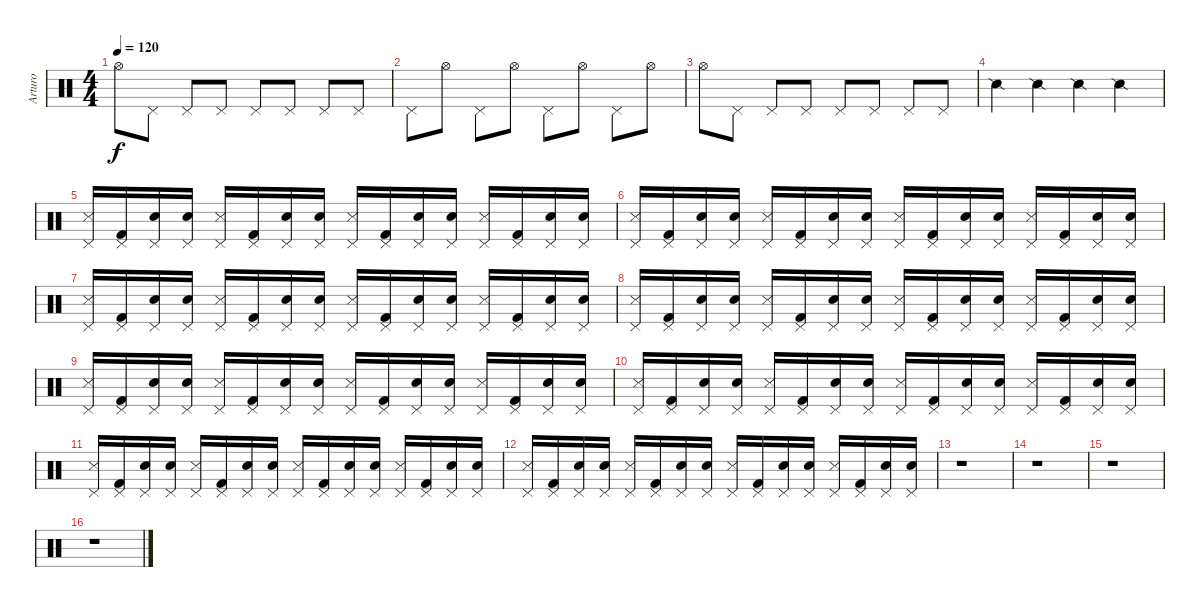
\track ("Arturo" "Arturo") {instrument percussion}
\staff {score}
\articulation defaults
\ts (4 4)
\tempo 120
\clef neutral
\ks c "Hi-Hat (open)".8{dy f} "Pedal Hi-Hat (hit)".8 "Pedal Hi-Hat (hit)".8 "Pedal Hi-Hat (hit)".8 "Pedal Hi-Hat (hit)".8 "Pedal Hi-Hat (hit)".8 "Pedal Hi-Hat (hit)".8 "Pedal Hi-Hat (hit)".8
|
"Pedal Hi-Hat (hit)".8 "Hi-Hat (open)".8 "Pedal Hi-Hat (hit)".8 "Hi-Hat (open)".8 "Pedal Hi-Hat (hit)".8 "Hi-Hat (open)".8 "Pedal Hi-Hat (hit)".8 "Hi-Hat (open)".8 |
"Hi-Hat (open)".8 "Pedal Hi-Hat (hit)".8 "Pedal Hi-Hat (hit)".8 "Pedal Hi-Hat (hit)".8 "Pedal Hi-Hat (hit)".8 "Pedal Hi-Hat (hit)".8 "Pedal Hi-Hat (hit)".8 "Pedal Hi-Hat (hit)".8 |
"Snare (side stick) 2".4 "Snare (side stick) 2".4 "Snare (side stick) 2".4 "Snare (side stick) 2".4 |
("Pedal Hi-Hat (hit)" "Snare (side stick) 3").16 ("Pedal Hi-Hat (hit)" "Kick (hit) 2").16 ("Pedal Hi-Hat (hit)" "Electric Snare (hit)").16 ("Pedal Hi-Hat (hit)" "Electric Snare (hit)").16 ("Pedal Hi-Hat (hit)" "Snare (side stick) 3").16 ("Pedal Hi-Hat (hit)" "Kick (hit) 2").16 ("Pedal Hi-Hat (hit)" "Electric Snare (hit)").16 ("Pedal Hi-Hat (hit)" "Electric Snare (hit)").16 ("Pedal Hi-Hat (hit)" "Snare (side stick) 3").16 ("Pedal Hi-Hat (hit)" "Kick (hit) 2").16 ("Pedal Hi-Hat (hit)" "Electric Snare (hit)").16 ("Pedal Hi-Hat (hit)" "Electric Snare (hit)").16 ("Pedal Hi-Hat (hit)" "Snare (side stick) 3").16 ("Pedal Hi-Hat (hit)" "Kick (hit) 2").16 ("Pedal Hi-Hat (hit)" "Electric Snare (hit)").16 ("Pedal Hi-Hat (hit)" "Electric Snare (hit)").16 |
("Pedal Hi-Hat (hit)" "Snare (side stick) 3").16 ("Pedal Hi-Hat (hit)" "Kick (hit) 2").16 ("Pedal Hi-Hat (hit)" "Electric Snare (hit)").16 ("Pedal Hi-Hat (hit)" "Electric Snare (hit)").16 ("Pedal Hi-Hat (hit)" "Snare (side stick) 3").16 ("Pedal Hi-Hat (hit)" "Kick (hit) 2").16 ("Pedal Hi-Hat (hit)" "Electric Snare (hit)").16 ("Pedal Hi-Hat (hit)" "Electric Snare (hit)").16 ("Pedal Hi-Hat (hit)" "Snare (side stick) 3").16 ("Pedal Hi-Hat (hit)" "Kick (hit) 2").16 ("Pedal Hi-Hat (hit)" "Electric Snare (hit)").16 ("Pedal Hi-Hat (hit)" "Electric Snare (hit)").16 ("Pedal Hi-Hat (hit)" "Snare (side stick) 3").16 ("Pedal Hi-Hat (hit)" "Kick (hit) 2").16 ("Pedal Hi-Hat (hit)" "Electric Snare (hit)").16 ("Pedal Hi-Hat (hit)" "Electric Snare (hit)").16 |
("Pedal Hi-Hat (hit)" "Snare (side stick) 3").16 ("Pedal Hi-Hat (hit)" "Kick (hit) 2").16 ("Pedal Hi-Hat (hit)" "Electric Snare (hit)").16 ("Pedal Hi-Hat (hit)" "Electric Snare (hit)").16 ("Pedal Hi-Hat (hit)" "Snare (side stick) 3").16 ("Pedal Hi-Hat (hit)" "Kick (hit) 2").16 ("Pedal Hi-Hat (hit)" "Electric Snare (hit)").16 ("Pedal Hi-Hat (hit)" "Electric Snare (hit)").16 ("Pedal Hi-Hat (hit)" "Snare (side stick) 3").16 ("Pedal Hi-Hat (hit)" "Kick (hit) 2").16 ("Pedal Hi-Hat (hit)" "Electric Snare (hit)").16 ("Pedal Hi-Hat (hit)" "Electric Snare (hit)").16 ("Pedal Hi-Hat (hit)" "Snare (side stick) 3").16 ("Pedal Hi-Hat (hit)" "Kick (hit) 2").16 ("Pedal Hi-Hat (hit)" "Electric Snare (hit)").16 ("Pedal Hi-Hat (hit)" "Electric Snare (hit)").16 |
("Pedal Hi-Hat (hit)" "Snare (side stick) 3").16 ("Pedal Hi-Hat (hit)" "Kick (hit) 2").16 ("Pedal Hi-Hat (hit)" "Electric Snare (hit)").16 ("Pedal Hi-Hat (hit)" "Electric Snare (hit)").16 ("Pedal Hi-Hat (hit)" "Snare (side stick) 3").16 ("Pedal Hi-Hat (hit)" "Kick (hit) 2").16 ("Pedal Hi-Hat (hit)" "Electric Snare (hit)").16 ("Pedal Hi-Hat (hit)" "Electric Snare (hit)").16 ("Pedal Hi-Hat (hit)" "Snare (side stick) 3").16 ("Pedal Hi-Hat (hit)" "Kick (hit) 2").16 ("Pedal Hi-Hat (hit)" "Electric Snare (hit)").16 ("Pedal Hi-Hat (hit)" "Electric Snare (hit)").16 ("Pedal Hi-Hat (hit)" "Snare (side stick) 3").16 ("Pedal Hi-Hat (hit)" "Kick (hit) 2").16 ("Pedal Hi-Hat (hit)" "Electric Snare (hit)").16 ("Pedal Hi-Hat (hit)" "Electric Snare (hit)").16 |
("Pedal Hi-Hat (hit)" "Snare (side stick) 3").16 ("Pedal Hi-Hat (hit)" "Kick (hit) 2").16 ("Pedal Hi-Hat (hit)" "Electric Snare (hit)").16 ("Pedal Hi-Hat (hit)" "Electric Snare (hit)").16 ("Pedal Hi-Hat (hit)" "Snare (side stick) 3").16 ("Pedal Hi-Hat (hit)" "Kick (hit) 2").16 ("Pedal Hi-Hat (hit)" "Electric Snare (hit)").16 ("Pedal Hi-Hat (hit)" "Electric Snare (hit)").16 ("Pedal Hi-Hat (hit)" "Snare (side stick) 3").16 ("Pedal Hi-Hat (hit)" "Kick (hit) 2").16 ("Pedal Hi-Hat (hit)" "Electric Snare (hit)").16 ("Pedal Hi-Hat (hit)" "Electric Snare (hit)").16 ("Pedal Hi-Hat (hit)" "Snare (side stick) 3").16 ("Pedal Hi-Hat (hit)" "Kick (hit) 2").16 ("Pedal Hi-Hat (hit)" "Electric Snare (hit)").16 ("Pedal Hi-Hat (hit)" "Electric Snare (hit)").16 |
("Pedal Hi-Hat (hit)" "Snare (side stick) 3").16 ("Pedal Hi-Hat (hit)" "Kick (hit) 2").16 ("Pedal Hi-Hat (hit)" "Electric Snare (hit)").16 ("Pedal Hi-Hat (hit)" "Electric Snare (hit)").16 ("Pedal Hi-Hat (hit)" "Snare (side stick) 3").16 ("Pedal Hi-Hat (hit)" "Kick (hit) 2").16 ("Pedal Hi-Hat (hit)" "Electric Snare (hit)").16 ("Pedal Hi-Hat (hit)" "Electric Snare (hit)").16 ("Pedal Hi-Hat (hit)" "Snare (side stick) 3").16 ("Pedal Hi-Hat (hit)" "Kick (hit) 2").16 ("Pedal Hi-Hat (hit)" "Electric Snare (hit)").16 ("Pedal Hi-Hat (hit)" "Electric Snare (hit)").16 ("Pedal Hi-Hat (hit)" "Snare (side stick) 3").16 ("Pedal Hi-Hat (hit)" "Kick (hit) 2").16 ("Pedal Hi-Hat (hit)" "Electric Snare (hit)").16 ("Pedal Hi-Hat (hit)" "Electric Snare (hit)").16 |
("Pedal Hi-Hat (hit)" "Snare (side stick) 3").16 ("Pedal Hi-Hat (hit)" "Kick (hit) 2").16 ("Pedal Hi-Hat (hit)" "Electric Snare (hit)").16 ("Pedal Hi-Hat (hit)" "Electric Snare (hit)").16 ("Pedal Hi-Hat (hit)" "Snare (side stick) 3").16 ("Pedal Hi-Hat (hit)" "Kick (hit) 2").16 ("Pedal Hi-Hat (hit)" "Electric Snare (hit)").16 ("Pedal Hi-Hat (hit)" "Electric Snare (hit)").16 ("Pedal Hi-Hat (hit)" "Snare (side stick) 3").16 ("Pedal Hi-Hat (hit)" "Kick (hit) 2").16 ("Pedal Hi-Hat (hit)" "Electric Snare (hit)").16 ("Pedal Hi-Hat (hit)" "Electric Snare (hit)").16 ("Pedal Hi-Hat (hit)" "Snare (side stick) 3").16 ("Pedal Hi-Hat (hit)" "Kick (hit) 2").16 ("Pedal Hi-Hat (hit)" "Electric Snare (hit)").16 ("Pedal Hi-Hat (hit)" "Electric Snare (hit)").16 |
("Pedal Hi-Hat (hit)" "Snare (side stick) 3").16 ("Pedal Hi-Hat (hit)" "Kick (hit) 2").16 ("Pedal Hi-Hat (hit)" "Electric Snare (hit)").16 ("Pedal Hi-Hat (hit)" "Electric Snare (hit)").16 ("Pedal Hi-Hat (hit)" "Snare (side stick) 3").16 ("Pedal Hi-Hat (hit)" "Kick (hit) 2").16 ("Pedal Hi-Hat (hit)" "Electric Snare (hit)").16 ("Pedal Hi-Hat (hit)" "Electric Snare (hit)").16 ("Pedal Hi-Hat (hit)" "Snare (side stick) 3").16 ("Pedal Hi-Hat (hit)" "Kick (hit) 2").16 ("Pedal Hi-Hat (hit)" "Electric Snare (hit)").16 ("Pedal Hi-Hat (hit)" "Electric Snare (hit)").16 ("Pedal Hi-Hat (hit)" "Snare (side stick) 3").16 ("Pedal Hi-Hat (hit)" "Kick (hit) 2").16 ("Pedal Hi-Hat (hit)" "Electric Snare (hit)").16 ("Pedal Hi-Hat (hit)" "Electric Snare (hit)").16 |
r.1 |
r.1 |
r.1 |
r.1
